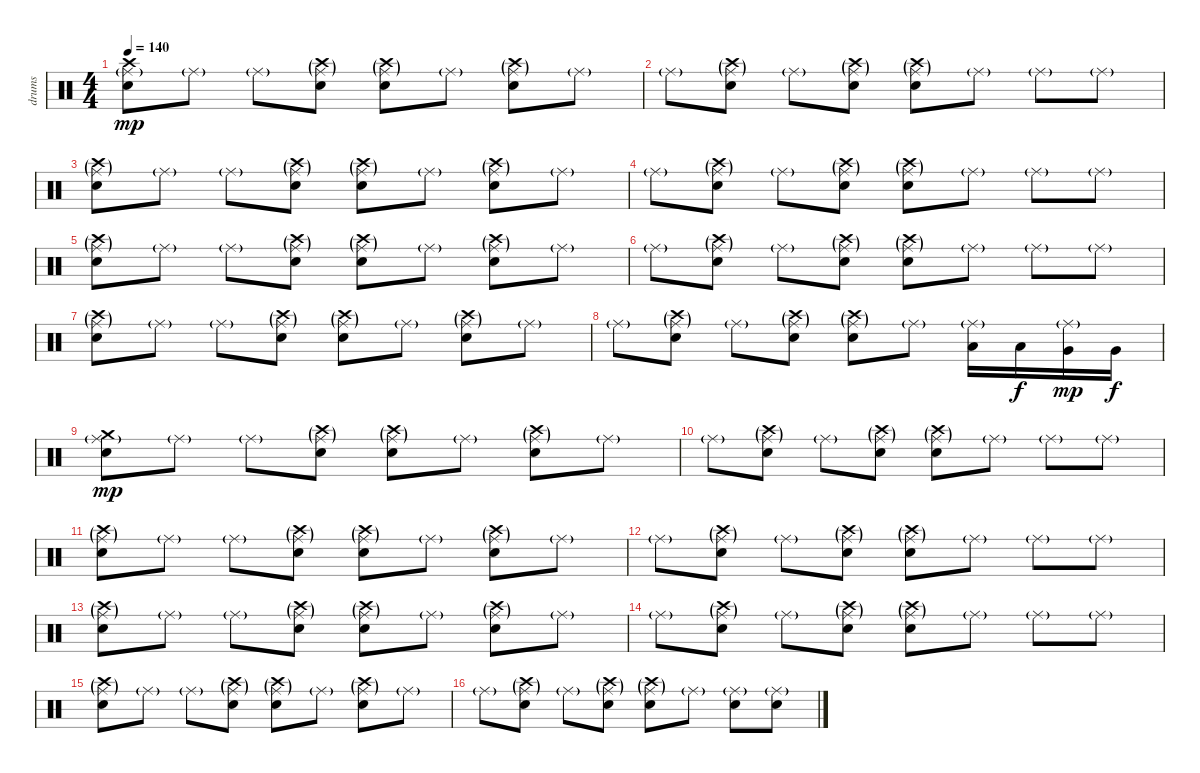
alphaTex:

\track ("drums" "drums") {instrument percussion}
\staff {score}
\articulation defaults
\ts (4 4)
\tempo 140
\clef neutral
\ks c
("Electric Snare (hit)" "Ride (middle)"{g} "Crash high (hit)").8{dy mp} "Ride (middle)"{g}.8 "Ride (middle)"{g}.8 ("Electric Snare (hit)" "Ride (middle)"{g} "Crash high (hit)"{g}).8 ("Electric Snare (hit)" "Ride (middle)"{g} "Crash high (hit)"{g}).8 "Ride (middle)"{g}.8 ("Electric Snare (hit)" "Ride (middle)"{g} "Crash high (hit)"{g}).8 "Ride (middle)"{g}.8 |
"Ride (middle)"{g}.8 ("Electric Snare (hit)" "Ride (middle)"{g} "Crash high (hit)"{g}).8 "Ride (middle)"{g}.8 ("Electric Snare (hit)" "Ride (middle)"{g} "Crash high (hit)"{g}).8 ("Electric Snare (hit)" "Ride (middle)"{g} "Crash high (hit)"{g}).8 "Ride (middle)"{g}.8 "Ride (middle)"{g}.8 "Ride (middle)"{g}.8 |
("Electric Snare (hit)" "Ride (middle)"{g} "Crash high (hit)"{g}).8 "Ride (middle)"{g}.8 "Ride (middle)"{g}.8 ("Electric Snare (hit)" "Ride (middle)"{g} "Crash high (hit)"{g}).8 ("Electric Snare (hit)" "Ride (middle)"{g} "Crash high (hit)"{g}).8 "Ride (middle)"{g}.8 ("Electric Snare (hit)" "Ride (middle)"{g} "Crash high (hit)"{g}).8 "Ride (middle)"{g}.8 |
"Ride (middle)"{g}.8 ("Electric Snare (hit)" "Ride (middle)"{g} "Crash high (hit)"{g}).8 "Ride (middle)"{g}.8 ("Electric Snare (hit)" "Ride (middle)"{g} "Crash high (hit)"{g}).8 ("Electric Snare (hit)" "Ride (middle)"{g} "Crash high (hit)"{g}).8 "Ride (middle)"{g}.8 "Ride (middle)"{g}.8 "Ride (middle)"{g}.8 |
("Electric Snare (hit)" "Ride (middle)"{g} "Crash high (hit)"{g}).8 "Ride (middle)"{g}.8 "Ride (middle)"{g}.8 ("Electric Snare (hit)" "Ride (middle)"{g} "Crash high (hit)"{g}).8 ("Electric Snare (hit)" "Ride (middle)"{g} "Crash high (hit)"{g}).8 "Ride (middle)"{g}.8 ("Electric Snare (hit)" "Ride (middle)"{g} "Crash high (hit)"{g}).8 "Ride (middle)"{g}.8 |
"Ride (middle)"{g}.8 ("Electric Snare (hit)" "Ride (middle)"{g} "Crash high (hit)"{g}).8 "Ride (middle)"{g}.8 ("Electric Snare (hit)" "Ride (middle)"{g} "Crash high (hit)"{g}).8 ("Electric Snare (hit)" "Ride (middle)"{g} "Crash high (hit)"{g}).8 "Ride (middle)"{g}.8 "Ride (middle)"{g}.8 "Ride (middle)"{g}.8 |
("Electric Snare (hit)" "Ride (middle)"{g} "Crash high (hit)"{g}).8 "Ride (middle)"{g}.8 "Ride (middle)"{g}.8 ("Electric Snare (hit)" "Ride (middle)"{g} "Crash high (hit)"{g}).8 ("Electric Snare (hit)" "Ride (middle)"{g} "Crash high (hit)"{g}).8 "Ride (middle)"{g}.8 ("Electric Snare (hit)" "Ride (middle)"{g} "Crash high (hit)"{g}).8 "Ride (middle)"{g}.8 |
"Ride (middle)"{g}.8 ("Electric Snare (hit)" "Ride (middle)"{g} "Crash high (hit)"{g}).8 "Ride (middle)"{g}.8 ("Electric Snare (hit)" "Ride (middle)"{g} "Crash high (hit)"{g}).8 ("Electric Snare (hit)" "Ride (middle)"{g} "Crash high (hit)"{g}).8 "Ride (middle)"{g}.8 ("Low Tom (hit)" "Ride (middle)"{g}).16 "Low Tom (hit)".16{dy f} ("Very Low Tom (hit)" "Ride (middle)"{g}).16{dy mp} "Very Low Tom (hit)".16{dy f} |
("Electric Snare (hit)" "Ride (middle)"{g} "Crash medium (hit)").8{dy mp} "Ride (middle)"{g}.8 "Ride (middle)"{g}.8 ("Electric Snare (hit)" "Ride (middle)"{g} "Crash high (hit)"{g}).8 ("Electric Snare (hit)" "Ride (middle)"{g} "Crash high (hit)"{g}).8 "Ride (middle)"{g}.8 ("Electric Snare (hit)" "Ride (middle)"{g} "Crash high (hit)"{g}).8 "Ride (middle)"{g}.8 |
"Ride (middle)"{g}.8 ("Electric Snare (hit)" "Ride (middle)"{g} "Crash high (hit)"{g}).8 "Ride (middle)"{g}.8 ("Electric Snare (hit)" "Ride (middle)"{g} "Crash high (hit)"{g}).8 ("Electric Snare (hit)" "Ride (middle)"{g} "Crash high (hit)"{g}).8 "Ride (middle)"{g}.8 "Ride (middle)"{g}.8 "Ride (middle)"{g}.8 |
("Electric Snare (hit)" "Ride (middle)"{g} "Crash high (hit)"{g}).8 "Ride (middle)"{g}.8 "Ride (middle)"{g}.8 ("Electric Snare (hit)" "Ride (middle)"{g} "Crash high (hit)"{g}).8 ("Electric Snare (hit)" "Ride (middle)"{g} "Crash high (hit)"{g}).8 "Ride (middle)"{g}.8 ("Electric Snare (hit)" "Ride (middle)"{g} "Crash high (hit)"{g}).8 "Ride (middle)"{g}.8 |
"Ride (middle)"{g}.8 ("Electric Snare (hit)" "Ride (middle)"{g} "Crash high (hit)"{g}).8 "Ride (middle)"{g}.8 ("Electric Snare (hit)" "Ride (middle)"{g} "Crash high (hit)"{g}).8 ("Electric Snare (hit)" "Ride (middle)"{g} "Crash high (hit)"{g}).8 "Ride (middle)"{g}.8 "Ride (middle)"{g}.8 "Ride (middle)"{g}.8 |
("Electric Snare (hit)" "Ride (middle)"{g} "Crash high (hit)"{g}).8 "Ride (middle)"{g}.8 "Ride (middle)"{g}.8 ("Electric Snare (hit)" "Ride (middle)"{g} "Crash high (hit)"{g}).8 ("Electric Snare (hit)" "Ride (middle)"{g} "Crash high (hit)"{g}).8 "Ride (middle)"{g}.8 ("Electric Snare (hit)" "Ride (middle)"{g} "Crash high (hit)"{g}).8 "Ride (middle)"{g}.8 |
"Ride (middle)"{g}.8 ("Electric Snare (hit)" "Ride (middle)"{g} "Crash high (hit)"{g}).8 "Ride (middle)"{g}.8 ("Electric Snare (hit)" "Ride (middle)"{g} "Crash high (hit)"{g}).8 ("Electric Snare (hit)" "Ride (middle)"{g} "Crash high (hit)"{g}).8 "Ride (middle)"{g}.8 "Ride (middle)"{g}.8 "Ride (middle)"{g}.8 |
("Electric Snare (hit)" "Ride (middle)"{g} "Crash high (hit)"{g}).8 "Ride (middle)"{g}.8 "Ride (middle)"{g}.8 ("Electric Snare (hit)" "Ride (middle)"{g} "Crash high (hit)"{g}).8 ("Electric Snare (hit)" "Ride (middle)"{g} "Crash high (hit)"{g}).8 "Ride (middle)"{g}.8 ("Electric Snare (hit)" "Ride (middle)"{g} "Crash high (hit)"{g}).8 "Ride (middle)"{g}.8 |
"Ride (middle)"{g}.8 ("Electric Snare (hit)" "Ride (middle)"{g} "Crash high (hit)"{g}).8 "Ride (middle)"{g}.8 ("Electric Snare (hit)" "Ride (middle)"{g} "Crash high (hit)"{g}).8 ("Electric Snare (hit)" "Ride (middle)"{g} "Crash high (hit)"{g}).8 "Ride (middle)"{g}.8 ("Electric Snare (hit)"{tr (40 16)} "Ride (middle)"{g}).8 ("Electric Snare (hit)" "Ride (middle)"{g}).8
